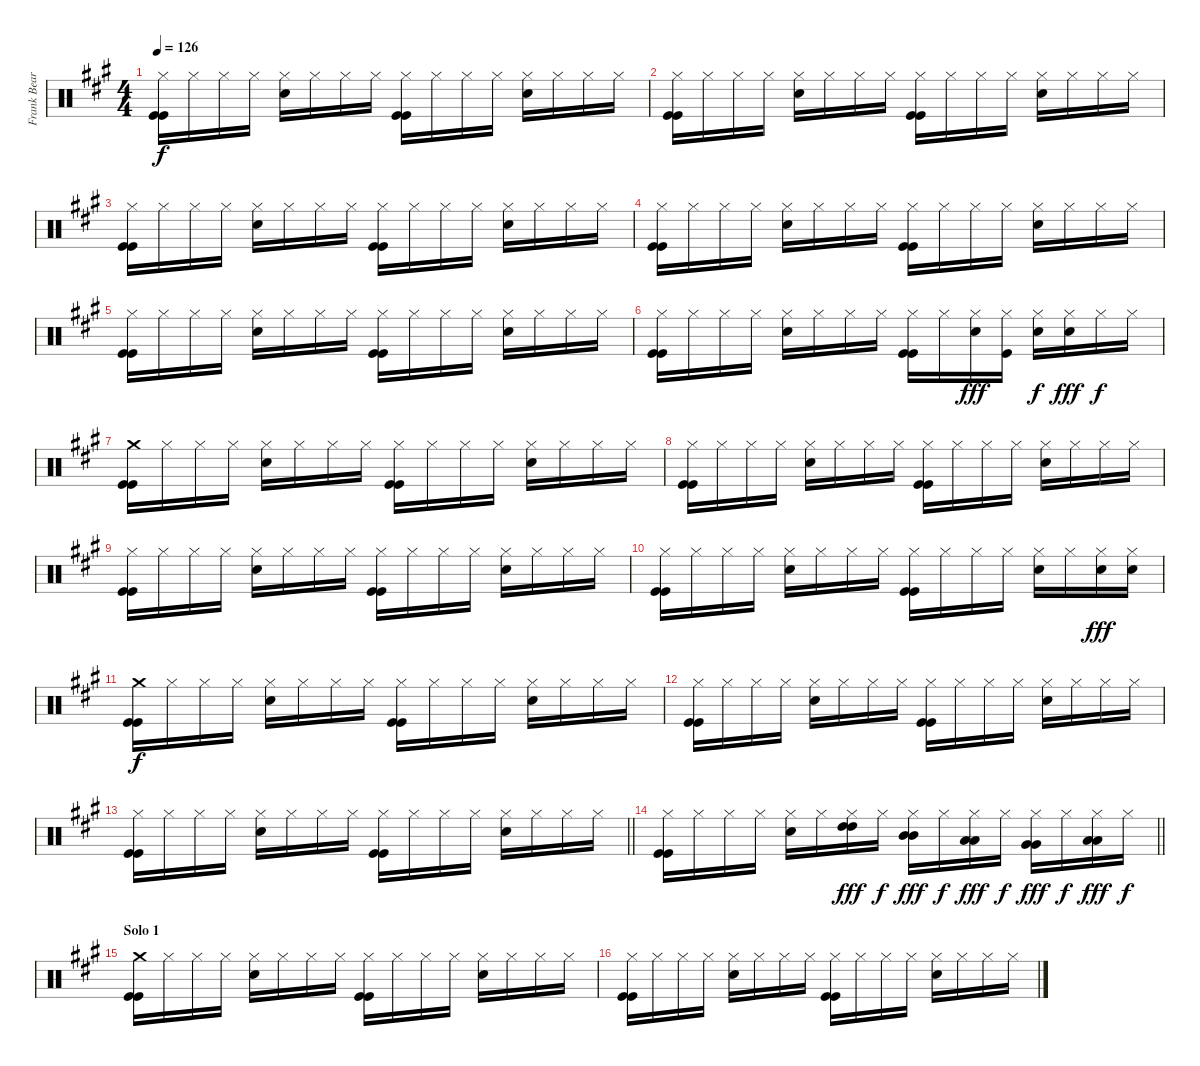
\track ("Frank Beard: Drums" "Frank Bear") {instrument percussion}
\staff {score}
\articulation defaults
\ts (4 4)
\tempo 126
\clef neutral
\ks a
("Hi-Hat (closed)" "Kick (hit)" "Kick (hit)").16{dy f} "Hi-Hat (closed)".16 "Hi-Hat (closed)".16 "Hi-Hat (closed)".16 ("Hi-Hat (closed)" "Electric Snare (hit)").16 "Hi-Hat (closed)".16 "Hi-Hat (closed)".16 "Hi-Hat (closed)".16 ("Hi-Hat (closed)" "Kick (hit)" "Kick (hit)").16 "Hi-Hat (closed)".16 "Hi-Hat (closed)".16 "Hi-Hat (closed)".16 ("Hi-Hat (closed)" "Electric Snare (hit)").16 "Hi-Hat (closed)".16 "Hi-Hat (closed)".16 "Hi-Hat (closed)".16 |
("Hi-Hat (closed)" "Kick (hit)" "Kick (hit)").16 "Hi-Hat (closed)".16 "Hi-Hat (closed)".16 "Hi-Hat (closed)".16 ("Hi-Hat (closed)" "Electric Snare (hit)").16 "Hi-Hat (closed)".16 "Hi-Hat (closed)".16 "Hi-Hat (closed)".16 ("Hi-Hat (closed)" "Kick (hit)" "Kick (hit)").16 "Hi-Hat (closed)".16 "Hi-Hat (closed)".16 "Hi-Hat (closed)".16 ("Hi-Hat (closed)" "Electric Snare (hit)").16 "Hi-Hat (closed)".16 "Hi-Hat (closed)".16 "Hi-Hat (closed)".16 |
("Hi-Hat (closed)" "Kick (hit)" "Kick (hit)").16 "Hi-Hat (closed)".16 "Hi-Hat (closed)".16 "Hi-Hat (closed)".16 ("Hi-Hat (closed)" "Electric Snare (hit)").16 "Hi-Hat (closed)".16 "Hi-Hat (closed)".16 "Hi-Hat (closed)".16 ("Hi-Hat (closed)" "Kick (hit)" "Kick (hit)").16 "Hi-Hat (closed)".16 "Hi-Hat (closed)".16 "Hi-Hat (closed)".16 ("Hi-Hat (closed)" "Electric Snare (hit)").16 "Hi-Hat (closed)".16 "Hi-Hat (closed)".16 "Hi-Hat (closed)".16 |
("Hi-Hat (closed)" "Kick (hit)" "Kick (hit)").16 "Hi-Hat (closed)".16 "Hi-Hat (closed)".16 "Hi-Hat (closed)".16 ("Hi-Hat (closed)" "Electric Snare (hit)").16 "Hi-Hat (closed)".16 "Hi-Hat (closed)".16 "Hi-Hat (closed)".16 ("Hi-Hat (closed)" "Kick (hit)" "Kick (hit)").16 "Hi-Hat (closed)".16 "Hi-Hat (closed)".16 "Hi-Hat (closed)".16 ("Hi-Hat (closed)" "Electric Snare (hit)").16 "Hi-Hat (closed)".16 "Hi-Hat (closed)".16 "Hi-Hat (closed)".16 |
("Hi-Hat (closed)" "Kick (hit)" "Kick (hit)").16 "Hi-Hat (closed)".16 "Hi-Hat (closed)".16 "Hi-Hat (closed)".16 ("Hi-Hat (closed)" "Electric Snare (hit)").16 "Hi-Hat (closed)".16 "Hi-Hat (closed)".16 "Hi-Hat (closed)".16 ("Hi-Hat (closed)" "Kick (hit)" "Kick (hit)").16 "Hi-Hat (closed)".16 "Hi-Hat (closed)".16 "Hi-Hat (closed)".16 ("Hi-Hat (closed)" "Electric Snare (hit)").16 "Hi-Hat (closed)".16 "Hi-Hat (closed)".16 "Hi-Hat (closed)".16 |
("Hi-Hat (closed)" "Kick (hit)" "Kick (hit)").16 "Hi-Hat (closed)".16 "Hi-Hat (closed)".16 "Hi-Hat (closed)".16 ("Hi-Hat (closed)" "Electric Snare (hit)").16 "Hi-Hat (closed)".16 "Hi-Hat (closed)".16 "Hi-Hat (closed)".16 ("Hi-Hat (closed)" "Kick (hit)" "Kick (hit)").16 "Hi-Hat (closed)".16 ("Hi-Hat (closed)" "Electric Snare (hit)").16{dy fff} ("Hi-Hat (closed)" "Kick (hit)").16 ("Hi-Hat (closed)" "Electric Snare (hit)").16{dy f} ("Hi-Hat (closed)" "Electric Snare (hit)").16{dy fff} "Hi-Hat (closed)".16{dy f} "Hi-Hat (closed)".16 |
("Crash medium (hit)" "Kick (hit)" "Kick (hit)").16 "Hi-Hat (closed)".16 "Hi-Hat (closed)".16 "Hi-Hat (closed)".16 ("Hi-Hat (closed)" "Electric Snare (hit)").16 "Hi-Hat (closed)".16 "Hi-Hat (closed)".16 "Hi-Hat (closed)".16 ("Hi-Hat (closed)" "Kick (hit)" "Kick (hit)").16 "Hi-Hat (closed)".16 "Hi-Hat (closed)".16 "Hi-Hat (closed)".16 ("Hi-Hat (closed)" "Electric Snare (hit)").16 "Hi-Hat (closed)".16 "Hi-Hat (closed)".16 "Hi-Hat (closed)".16 |
("Hi-Hat (closed)" "Kick (hit)" "Kick (hit)").16 "Hi-Hat (closed)".16 "Hi-Hat (closed)".16 "Hi-Hat (closed)".16 ("Hi-Hat (closed)" "Electric Snare (hit)").16 "Hi-Hat (closed)".16 "Hi-Hat (closed)".16 "Hi-Hat (closed)".16 ("Hi-Hat (closed)" "Kick (hit)" "Kick (hit)").16 "Hi-Hat (closed)".16 "Hi-Hat (closed)".16 "Hi-Hat (closed)".16 ("Hi-Hat (closed)" "Electric Snare (hit)").16 "Hi-Hat (closed)".16 "Hi-Hat (closed)".16 "Hi-Hat (closed)".16 |
("Hi-Hat (closed)" "Kick (hit)" "Kick (hit)").16 "Hi-Hat (closed)".16 "Hi-Hat (closed)".16 "Hi-Hat (closed)".16 ("Hi-Hat (closed)" "Electric Snare (hit)").16 "Hi-Hat (closed)".16 "Hi-Hat (closed)".16 "Hi-Hat (closed)".16 ("Hi-Hat (closed)" "Kick (hit)" "Kick (hit)").16 "Hi-Hat (closed)".16 "Hi-Hat (closed)".16 "Hi-Hat (closed)".16 ("Hi-Hat (closed)" "Electric Snare (hit)").16 "Hi-Hat (closed)".16 "Hi-Hat (closed)".16 "Hi-Hat (closed)".16 |
("Hi-Hat (closed)" "Kick (hit)" "Kick (hit)").16 "Hi-Hat (closed)".16 "Hi-Hat (closed)".16 "Hi-Hat (closed)".16 ("Hi-Hat (closed)" "Electric Snare (hit)").16 "Hi-Hat (closed)".16 "Hi-Hat (closed)".16 "Hi-Hat (closed)".16 ("Hi-Hat (closed)" "Kick (hit)" "Kick (hit)").16 "Hi-Hat (closed)".16 "Hi-Hat (closed)".16 "Hi-Hat (closed)".16 ("Hi-Hat (closed)" "Electric Snare (hit)").16 "Hi-Hat (closed)".16 ("Hi-Hat (closed)" "Electric Snare (hit)").16{dy fff} ("Hi-Hat (closed)" "Electric Snare (hit)").16 |
("Crash medium (hit)" "Kick (hit)" "Kick (hit)").16{dy f} "Hi-Hat (closed)".16 "Hi-Hat (closed)".16 "Hi-Hat (closed)".16 ("Hi-Hat (closed)" "Electric Snare (hit)").16 "Hi-Hat (closed)".16 "Hi-Hat (closed)".16 "Hi-Hat (closed)".16 ("Hi-Hat (closed)" "Kick (hit)" "Kick (hit)").16 "Hi-Hat (closed)".16 "Hi-Hat (closed)".16 "Hi-Hat (closed)".16 ("Hi-Hat (closed)" "Electric Snare (hit)").16 "Hi-Hat (closed)".16 "Hi-Hat (closed)".16 "Hi-Hat (closed)".16 |
("Hi-Hat (closed)" "Kick (hit)" "Kick (hit)").16 "Hi-Hat (closed)".16 "Hi-Hat (closed)".16 "Hi-Hat (closed)".16 ("Hi-Hat (closed)" "Electric Snare (hit)").16 "Hi-Hat (closed)".16 "Hi-Hat (closed)".16 "Hi-Hat (closed)".16 ("Hi-Hat (closed)" "Kick (hit)" "Kick (hit)").16 "Hi-Hat (closed)".16 "Hi-Hat (closed)".16 "Hi-Hat (closed)".16 ("Hi-Hat (closed)" "Electric Snare (hit)").16 "Hi-Hat (closed)".16 "Hi-Hat (closed)".16 "Hi-Hat (closed)".16 |
\barLineRight lightlight
("Hi-Hat (closed)" "Kick (hit)" "Kick (hit)").16 "Hi-Hat (closed)".16 "Hi-Hat (closed)".16 "Hi-Hat (closed)".16 ("Hi-Hat (closed)" "Electric Snare (hit)").16 "Hi-Hat (closed)".16 "Hi-Hat (closed)".16 "Hi-Hat (closed)".16 ("Hi-Hat (closed)" "Kick (hit)" "Kick (hit)").16 "Hi-Hat (closed)".16 "Hi-Hat (closed)".16 "Hi-Hat (closed)".16 ("Hi-Hat (closed)" "Electric Snare (hit)").16 "Hi-Hat (closed)".16 "Hi-Hat (closed)".16 "Hi-Hat (closed)".16 |
\barLineRight lightlight
("Hi-Hat (closed)" "Kick (hit)" "Kick (hit)").16 "Hi-Hat (closed)".16 "Hi-Hat (closed)".16 "Hi-Hat (closed)".16 ("Hi-Hat (closed)" "Electric Snare (hit)").16 "Hi-Hat (closed)".16 ("Hi-Hat (closed)" "High Tom (hit)" "High Tom (hit)").16{dy fff} "Hi-Hat (closed)".16{dy f} ("Hi-Hat (closed)" "Mid Tom (hit)" "Mid Tom (hit)").16{dy fff} "Hi-Hat (closed)".16{dy f} ("Hi-Hat (closed)" "Low Tom (hit)" "Low Tom (hit)").16{dy fff} "Hi-Hat (closed)".16{dy f} ("Hi-Hat (closed)" "Very Low Tom (hit)" "Very Low Tom (hit)").16{dy fff} "Hi-Hat (closed)".16{dy f} ("Hi-Hat (closed)" "Low Floor Tom (hit)" "Low Floor Tom (hit)").16{dy fff} "Hi-Hat (closed)".16{dy f} |
\section ("" "Solo 1")
("Crash medium (hit)" "Kick (hit)" "Kick (hit)").16 "Hi-Hat (closed)".16 "Hi-Hat (closed)".16 "Hi-Hat (closed)".16 ("Hi-Hat (closed)" "Electric Snare (hit)").16 "Hi-Hat (closed)".16 "Hi-Hat (closed)".16 "Hi-Hat (closed)".16 ("Hi-Hat (closed)" "Kick (hit)" "Kick (hit)").16 "Hi-Hat (closed)".16 "Hi-Hat (closed)".16 "Hi-Hat (closed)".16 ("Hi-Hat (closed)" "Electric Snare (hit)").16 "Hi-Hat (closed)".16 "Hi-Hat (closed)".16 "Hi-Hat (closed)".16 |
("Hi-Hat (closed)" "Kick (hit)" "Kick (hit)").16 "Hi-Hat (closed)".16 "Hi-Hat (closed)".16 "Hi-Hat (closed)".16 ("Hi-Hat (closed)" "Electric Snare (hit)").16 "Hi-Hat (closed)".16 "Hi-Hat (closed)".16 "Hi-Hat (closed)".16 ("Hi-Hat (closed)" "Kick (hit)" "Kick (hit)").16 "Hi-Hat (closed)".16 "Hi-Hat (closed)".16 "Hi-Hat (closed)".16 ("Hi-Hat (closed)" "Electric Snare (hit)").16 "Hi-Hat (closed)".16 "Hi-Hat (closed)".16 "Hi-Hat (closed)".16
